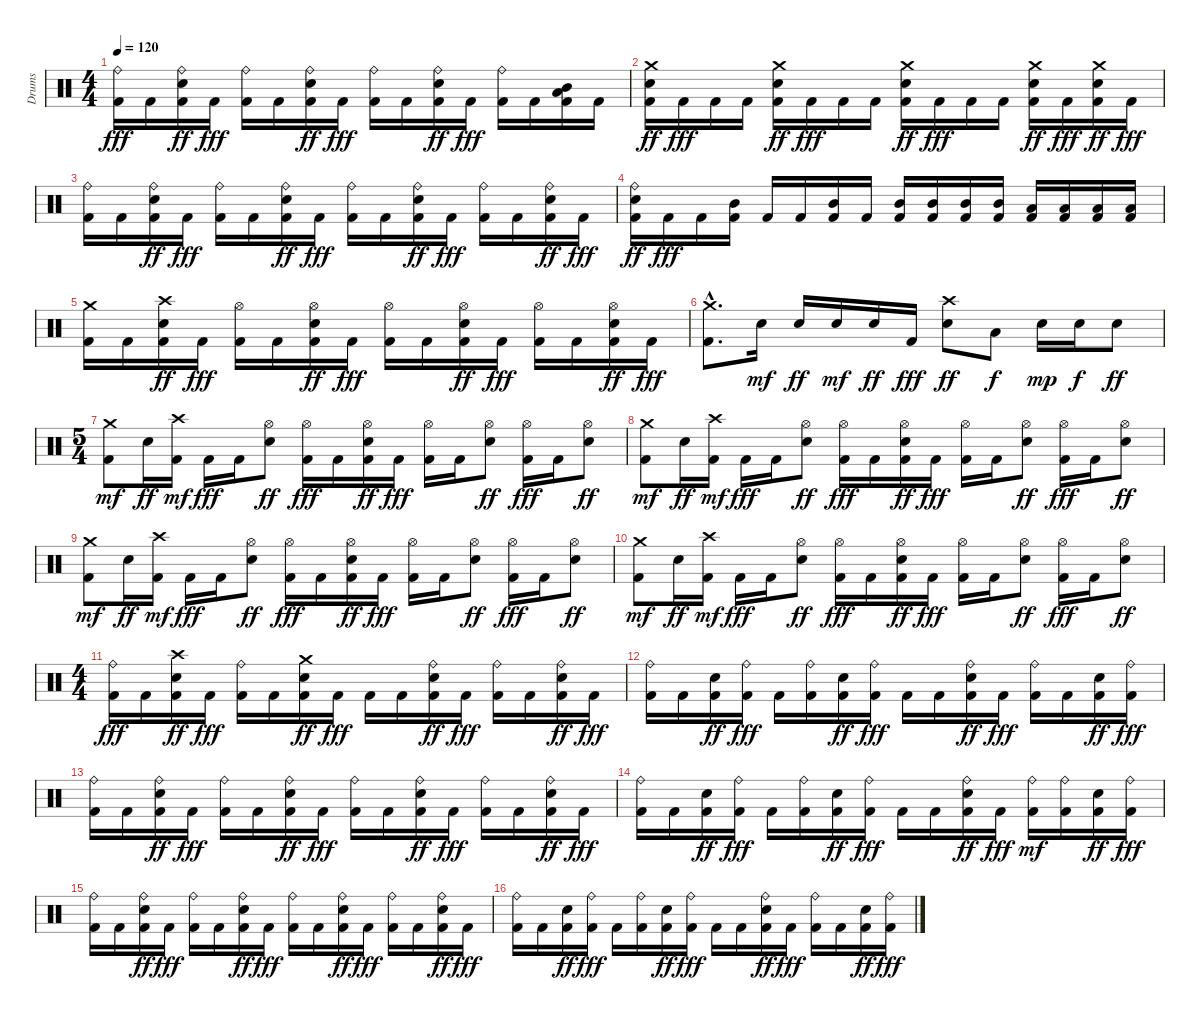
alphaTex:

\track ("Drums" "Drums") {instrument percussion}
\staff {score}
\articulation defaults
\ts (4 4)
\tempo 120
\clef neutral
\ks c
("Ride (bell)" "Kick (hit) 2").16{dy fff} "Kick (hit) 2".16 ("Ride (bell)" "Kick (hit) 2" "Snare (hit) 2").16{dy ff} "Kick (hit) 2".16{dy fff} ("Ride (bell)" "Kick (hit) 2").16 "Kick (hit) 2".16 ("Ride (bell)" "Kick (hit) 2" "Snare (hit) 2").16{dy ff} "Kick (hit) 2".16{dy fff} ("Ride (bell)" "Kick (hit) 2").16 "Kick (hit) 2".16 ("Ride (bell)" "Kick (hit) 2" "Snare (hit) 2").16{dy ff} "Kick (hit) 2".16{dy fff} ("Ride (bell)" "Kick (hit) 2").16 "Kick (hit) 2".16 ("Kick (hit) 2" "Low Tom (hit)" "Mid Tom (hit)").16 "Kick (hit) 2".16 |
("Crash medium (hit)" "Kick (hit) 2" "Snare (hit) 2").16{dy ff} "Kick (hit) 2".16{dy fff} "Kick (hit) 2".16 "Kick (hit) 2".16 ("Crash medium (hit)" "Kick (hit) 2" "Snare (hit) 2").16{dy ff} "Kick (hit) 2".16{dy fff} "Kick (hit) 2".16 "Kick (hit) 2".16 ("Crash medium (hit)" "Kick (hit) 2" "Snare (hit) 2").16{dy ff} "Kick (hit) 2".16{dy fff} "Kick (hit) 2".16 "Kick (hit) 2".16 ("Crash medium (hit)" "Kick (hit) 2" "Snare (hit) 2").16{dy ff} "Kick (hit) 2".16{dy fff} ("Crash medium (hit)" "Kick (hit) 2" "Snare (hit) 2").16{dy ff} "Kick (hit) 2".16{dy fff} |
("Ride (bell)" "Kick (hit) 2").16 "Kick (hit) 2".16 ("Ride (bell)" "Kick (hit) 2" "Snare (hit) 2").16{dy ff} "Kick (hit) 2".16{dy fff} ("Ride (bell)" "Kick (hit) 2").16 "Kick (hit) 2".16 ("Ride (bell)" "Kick (hit) 2" "Snare (hit) 2").16{dy ff} "Kick (hit) 2".16{dy fff} ("Ride (bell)" "Kick (hit) 2").16 "Kick (hit) 2".16 ("Ride (bell)" "Kick (hit) 2" "Snare (hit) 2").16{dy ff} "Kick (hit) 2".16{dy fff} ("Ride (bell)" "Kick (hit) 2").16 "Kick (hit) 2".16 ("Ride (bell)" "Kick (hit) 2" "Snare (hit) 2").16{dy ff} "Kick (hit) 2".16{dy fff} |
("Kick (hit) 2" "Ride (bell)" "Snare (hit) 2").16{dy ff} "Kick (hit) 2".16{dy fff} "Kick (hit) 2".16 ("Mid Tom (hit)" "Kick (hit) 2").16 "Kick (hit) 2".16 "Kick (hit) 2".16 ("Mid Tom (hit)" "Kick (hit) 2").16 "Kick (hit) 2".16 ("Mid Tom (hit)" "Kick (hit) 2").16 ("Mid Tom (hit)" "Kick (hit) 2").16 ("Mid Tom (hit)" "Kick (hit) 2").16 ("Mid Tom (hit)" "Kick (hit) 2").16 ("Low Tom (hit)" "Kick (hit) 2").16 ("Low Tom (hit)" "Kick (hit) 2").16 ("Low Tom (hit)" "Kick (hit) 2").16 ("Low Tom (hit)" "Kick (hit) 2").16 |
("Crash medium (hit)" "Kick (hit) 2").16 "Kick (hit) 2".16 ("Crash high (hit)" "Kick (hit) 2" "Snare (hit) 2").16{dy ff} "Kick (hit) 2".16{dy fff} ("Hi-Hat (open)" "Kick (hit) 2").16 "Kick (hit) 2".16 ("Hi-Hat (open)" "Kick (hit) 2" "Snare (hit) 2").16{dy ff} "Kick (hit) 2".16{dy fff} ("Hi-Hat (open)" "Kick (hit) 2").16 "Kick (hit) 2".16 ("Hi-Hat (open)" "Kick (hit) 2" "Snare (hit) 2").16{dy ff} "Kick (hit) 2".16{dy fff} ("Hi-Hat (open)" "Kick (hit) 2").16 "Kick (hit) 2".16 ("Hi-Hat (open)" "Kick (hit) 2" "Snare (hit) 2").16{dy ff} "Kick (hit) 2".16{dy fff} |
("Kick (hit) 2"{hac} "Crash medium (hit)").8{d} "Snare (hit) 2".16{dy mf} "Snare (hit) 2".16{dy ff} "Snare (hit) 2".16{dy mf} "Snare (hit) 2".16{dy ff} "Kick (hit) 2".16{dy fff} ("Crash high (hit)" "Snare (hit) 2").8{dy ff} "Low Tom (hit)".8{dy f} "Snare (hit) 2".16{dy mp} "Snare (hit) 2".16{dy f} "Snare (hit) 2".8{dy ff} |
\ts (5 4)
("Kick (hit) 2" "Crash medium (hit)").8{dy mf} "Snare (hit) 2".16{dy ff} ("Kick (hit) 2" "Crash high (hit)").16{dy mf} "Kick (hit) 2".16{dy fff} "Kick (hit) 2".16 ("Hi-Hat (open)" "Snare (hit) 2").8{dy ff} ("Hi-Hat (open)" "Kick (hit) 2").16{dy fff} "Kick (hit) 2".16 ("Hi-Hat (open)" "Kick (hit) 2" "Snare (hit) 2").16{dy ff} "Kick (hit) 2".16{dy fff} ("Hi-Hat (open)" "Kick (hit) 2").16 "Kick (hit) 2".16 ("Hi-Hat (open)" "Snare (hit) 2").8{dy ff} ("Hi-Hat (open)" "Kick (hit) 2").16{dy fff} "Kick (hit) 2".16 ("Hi-Hat (open)" "Snare (hit) 2").8{dy ff} |
("Kick (hit) 2" "Crash medium (hit)").8{dy mf} "Snare (hit) 2".16{dy ff} ("Kick (hit) 2" "Crash high (hit)").16{dy mf} "Kick (hit) 2".16{dy fff} "Kick (hit) 2".16 ("Hi-Hat (open)" "Snare (hit) 2").8{dy ff} ("Hi-Hat (open)" "Kick (hit) 2").16{dy fff} "Kick (hit) 2".16 ("Hi-Hat (open)" "Kick (hit) 2" "Snare (hit) 2").16{dy ff} "Kick (hit) 2".16{dy fff} ("Hi-Hat (open)" "Kick (hit) 2").16 "Kick (hit) 2".16 ("Hi-Hat (open)" "Snare (hit) 2").8{dy ff} ("Hi-Hat (open)" "Kick (hit) 2").16{dy fff} "Kick (hit) 2".16 ("Hi-Hat (open)" "Snare (hit) 2").8{dy ff} |
("Kick (hit) 2" "Crash medium (hit)").8{dy mf} "Snare (hit) 2".16{dy ff} ("Kick (hit) 2" "Crash high (hit)").16{dy mf} "Kick (hit) 2".16{dy fff} "Kick (hit) 2".16 ("Hi-Hat (open)" "Snare (hit) 2").8{dy ff} ("Hi-Hat (open)" "Kick (hit) 2").16{dy fff} "Kick (hit) 2".16 ("Hi-Hat (open)" "Kick (hit) 2" "Snare (hit) 2").16{dy ff} "Kick (hit) 2".16{dy fff} ("Hi-Hat (open)" "Kick (hit) 2").16 "Kick (hit) 2".16 ("Hi-Hat (open)" "Snare (hit) 2").8{dy ff} ("Hi-Hat (open)" "Kick (hit) 2").16{dy fff} "Kick (hit) 2".16 ("Hi-Hat (open)" "Snare (hit) 2").8{dy ff} |
("Kick (hit) 2" "Crash medium (hit)").8{dy mf} "Snare (hit) 2".16{dy ff} ("Kick (hit) 2" "Crash high (hit)").16{dy mf} "Kick (hit) 2".16{dy fff} "Kick (hit) 2".16 ("Hi-Hat (open)" "Snare (hit) 2").8{dy ff} ("Hi-Hat (open)" "Kick (hit) 2").16{dy fff} "Kick (hit) 2".16 ("Hi-Hat (open)" "Kick (hit) 2" "Snare (hit) 2").16{dy ff} "Kick (hit) 2".16{dy fff} ("Hi-Hat (open)" "Kick (hit) 2").16 "Kick (hit) 2".16 ("Hi-Hat (open)" "Snare (hit) 2").8{dy ff} ("Hi-Hat (open)" "Kick (hit) 2").16{dy fff} "Kick (hit) 2".16 ("Hi-Hat (open)" "Snare (hit) 2").8{dy ff} |
\ts (4 4)
("Ride (bell)" "Kick (hit) 2").16{dy fff} "Kick (hit) 2".16 ("Crash high (hit)" "Kick (hit) 2" "Snare (hit) 2").16{dy ff} "Kick (hit) 2".16{dy fff} ("Ride (bell)" "Kick (hit) 2").16 "Kick (hit) 2".16 ("Crash medium (hit)" "Kick (hit) 2" "Snare (hit) 2").16{dy ff} "Kick (hit) 2".16{dy fff} "Kick (hit) 2".16 "Kick (hit) 2".16 ("Ride (bell)" "Kick (hit) 2" "Snare (hit) 2").16{dy ff} "Kick (hit) 2".16{dy fff} ("Ride (bell)" "Kick (hit) 2").16 "Kick (hit) 2".16 ("Ride (bell)" "Kick (hit) 2" "Snare (hit) 2").16{dy ff} "Kick (hit) 2".16{dy fff} |
("Ride (bell)" "Kick (hit) 2").16 "Kick (hit) 2".16 ("Kick (hit) 2" "Snare (hit) 2").16{dy ff} ("Kick (hit) 2" "Ride (bell)").16{dy fff} "Kick (hit) 2".16 ("Kick (hit) 2" "Ride (bell)").16 ("Kick (hit) 2" "Snare (hit) 2").16{dy ff} ("Kick (hit) 2" "Ride (bell)").16{dy fff} "Kick (hit) 2".16 "Kick (hit) 2".16 ("Ride (bell)" "Kick (hit) 2" "Snare (hit) 2").16{dy ff} "Kick (hit) 2".16{dy fff} ("Ride (bell)" "Kick (hit) 2").16 "Kick (hit) 2".16 ("Kick (hit) 2" "Snare (hit) 2").16{dy ff} ("Kick (hit) 2" "Ride (bell)").16{dy fff} |
("Ride (bell)" "Kick (hit) 2").16 "Kick (hit) 2".16 ("Ride (bell)" "Kick (hit) 2" "Snare (hit) 2").16{dy ff} "Kick (hit) 2".16{dy fff} ("Ride (bell)" "Kick (hit) 2").16 "Kick (hit) 2".16 ("Ride (bell)" "Kick (hit) 2" "Snare (hit) 2").16{dy ff} "Kick (hit) 2".16{dy fff} ("Ride (bell)" "Kick (hit) 2").16 "Kick (hit) 2".16 ("Ride (bell)" "Kick (hit) 2" "Snare (hit) 2").16{dy ff} "Kick (hit) 2".16{dy fff} ("Ride (bell)" "Kick (hit) 2").16 "Kick (hit) 2".16 ("Ride (bell)" "Kick (hit) 2" "Snare (hit) 2").16{dy ff} "Kick (hit) 2".16{dy fff} |
("Ride (bell)" "Kick (hit) 2").16 "Kick (hit) 2".16 ("Kick (hit) 2" "Snare (hit) 2").16{dy ff} ("Kick (hit) 2" "Ride (bell)").16{dy fff} "Kick (hit) 2".16 ("Kick (hit) 2" "Ride (bell)").16 ("Kick (hit) 2" "Snare (hit) 2").16{dy ff} ("Kick (hit) 2" "Ride (bell)").16{dy fff} "Kick (hit) 2".16 "Kick (hit) 2".16 ("Ride (bell)" "Kick (hit) 2" "Snare (hit) 2").16{dy ff} "Kick (hit) 2".16{dy fff} ("Kick (hit) 2" "Ride (bell)").16{dy mf} ("Kick (hit) 2" "Ride (bell)").16 ("Kick (hit) 2" "Snare (hit) 2").16{dy ff} ("Kick (hit) 2" "Ride (bell)").16{dy fff} |
("Ride (bell)" "Kick (hit) 2").16 "Kick (hit) 2".16 ("Ride (bell)" "Kick (hit) 2" "Snare (hit) 2").16{dy ff} "Kick (hit) 2".16{dy fff} ("Ride (bell)" "Kick (hit) 2").16 "Kick (hit) 2".16 ("Ride (bell)" "Kick (hit) 2" "Snare (hit) 2").16{dy ff} "Kick (hit) 2".16{dy fff} ("Ride (bell)" "Kick (hit) 2").16 "Kick (hit) 2".16 ("Ride (bell)" "Kick (hit) 2" "Snare (hit) 2").16{dy ff} "Kick (hit) 2".16{dy fff} ("Ride (bell)" "Kick (hit) 2").16 "Kick (hit) 2".16 ("Ride (bell)" "Kick (hit) 2" "Snare (hit) 2").16{dy ff} "Kick (hit) 2".16{dy fff} |
("Ride (bell)" "Kick (hit) 2").16 "Kick (hit) 2".16 ("Kick (hit) 2" "Snare (hit) 2").16{dy ff} ("Kick (hit) 2" "Ride (bell)").16{dy fff} "Kick (hit) 2".16 ("Kick (hit) 2" "Ride (bell)").16 ("Kick (hit) 2" "Snare (hit) 2").16{dy ff} ("Kick (hit) 2" "Ride (bell)").16{dy fff} "Kick (hit) 2".16 "Kick (hit) 2".16 ("Ride (bell)" "Kick (hit) 2" "Snare (hit) 2").16{dy ff} "Kick (hit) 2".16{dy fff} ("Ride (bell)" "Kick (hit) 2").16 "Kick (hit) 2".16 ("Kick (hit) 2" "Snare (hit) 2").16{dy ff} ("Kick (hit) 2" "Ride (bell)").16{dy fff}
